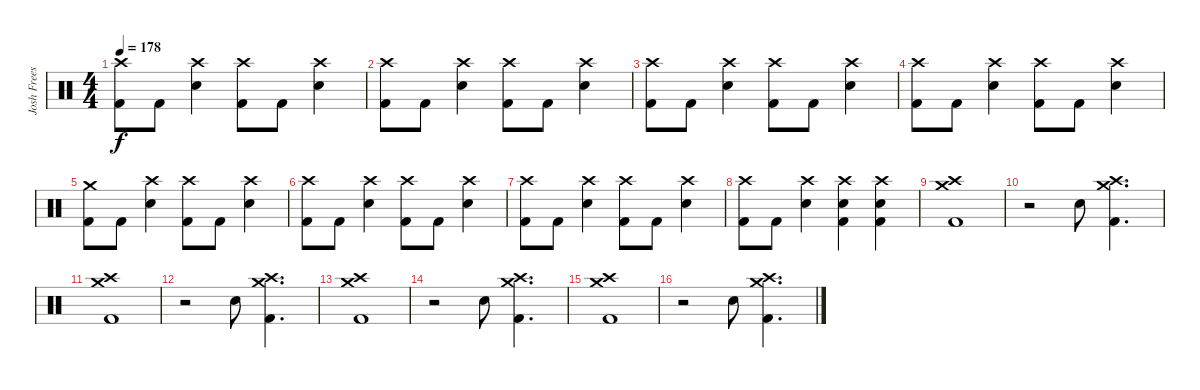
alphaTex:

\track ("Josh Freese" "Josh Frees") {instrument percussion}
\staff {score}
\articulation defaults
\ts (4 4)
\tempo 178
\clef neutral
\ks c
("Crash high (hit)" "Kick (hit) 2").8{dy f} "Kick (hit) 2".8 ("Crash high (hit)" "Electric Snare (hit)").4 ("Crash high (hit)" "Kick (hit) 2").8 "Kick (hit) 2".8 ("Crash high (hit)" "Electric Snare (hit)").4 |
("Crash high (hit)" "Kick (hit) 2").8 "Kick (hit) 2".8 ("Crash high (hit)" "Electric Snare (hit)").4 ("Crash high (hit)" "Kick (hit) 2").8 "Kick (hit) 2".8 ("Crash high (hit)" "Electric Snare (hit)").4 |
("Crash high (hit)" "Kick (hit) 2").8 "Kick (hit) 2".8 ("Crash high (hit)" "Electric Snare (hit)").4 ("Crash high (hit)" "Kick (hit) 2").8 "Kick (hit) 2".8 ("Crash high (hit)" "Electric Snare (hit)").4 |
("Crash high (hit)" "Kick (hit) 2").8 "Kick (hit) 2".8 ("Crash high (hit)" "Electric Snare (hit)").4 ("Crash high (hit)" "Kick (hit) 2").8 "Kick (hit) 2".8 ("Crash high (hit)" "Electric Snare (hit)").4 |
("Crash medium (hit)" "Kick (hit) 2").8 "Kick (hit) 2".8 ("Crash high (hit)" "Electric Snare (hit)").4 ("Crash high (hit)" "Kick (hit) 2").8 "Kick (hit) 2".8 ("Crash high (hit)" "Electric Snare (hit)").4 |
("Crash high (hit)" "Kick (hit) 2").8 "Kick (hit) 2".8 ("Crash high (hit)" "Electric Snare (hit)").4 ("Crash high (hit)" "Kick (hit) 2").8 "Kick (hit) 2".8 ("Crash high (hit)" "Electric Snare (hit)").4 |
("Crash high (hit)" "Kick (hit) 2").8 "Kick (hit) 2".8 ("Crash high (hit)" "Electric Snare (hit)").4 ("Crash high (hit)" "Kick (hit) 2").8 "Kick (hit) 2".8 ("Crash high (hit)" "Electric Snare (hit)").4 |
("Crash high (hit)" "Kick (hit) 2").8 "Kick (hit) 2".8 ("Crash high (hit)" "Electric Snare (hit)").4 ("Crash high (hit)" "Electric Snare (hit)" "Kick (hit) 2").4 ("Crash high (hit)" "Electric Snare (hit)" "Kick (hit) 2").4 |
("Crash medium (hit)" "Crash high (hit)" "Kick (hit) 2").1 |
r.2 "Electric Snare (hit)".8 ("Crash medium (hit)" "Crash high (hit)" "Kick (hit) 2").4{d} |
("Crash medium (hit)" "Crash high (hit)" "Kick (hit) 2").1 |
r.2 "Electric Snare (hit)".8 ("Crash medium (hit)" "Crash high (hit)" "Kick (hit) 2").4{d} |
("Crash medium (hit)" "Crash high (hit)" "Kick (hit) 2").1 |
r.2 "Electric Snare (hit)".8 ("Crash medium (hit)" "Crash high (hit)" "Kick (hit) 2").4{d} |
("Crash medium (hit)" "Crash high (hit)" "Kick (hit) 2").1 |
r.2 "Electric Snare (hit)".8 ("Crash medium (hit)" "Crash high (hit)" "Kick (hit) 2").4{d}
